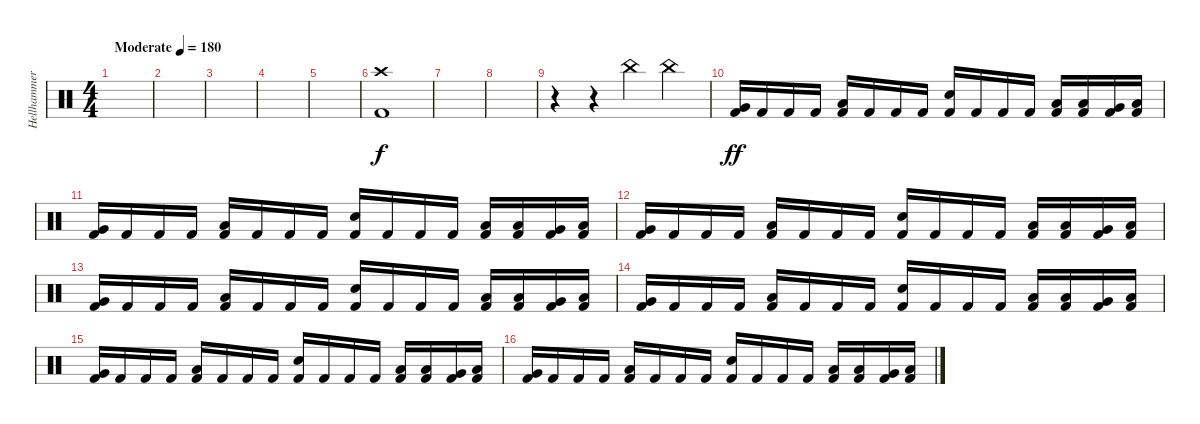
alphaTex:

\track ("Hellhammer" "Hellhammer") {instrument percussion}
\staff {score}
\articulation defaults
\ts (4 4)
\tempo (180 "Moderate")
\clef neutral
\ks c
|
|
|
|
|
("Crash high (hit)" "Kick (hit) 2").1 |
|
|
r.4 r.4 "China (hit)".4{dy f} "China (hit)".4 |
("Very Low Tom (hit)" "Kick (hit) 2").16{dy ff} "Kick (hit) 2".16 "Kick (hit) 2".16 "Kick (hit) 2".16 ("Low Floor Tom (hit)" "Kick (hit) 2").16 "Kick (hit) 2".16 "Kick (hit) 2".16 "Kick (hit) 2".16 ("Electric Snare (hit)" "Kick (hit) 2").16 "Kick (hit) 2".16 "Kick (hit) 2".16 "Kick (hit) 2".16 ("Low Floor Tom (hit)" "Kick (hit) 2").16 ("Low Floor Tom (hit)" "Kick (hit) 2").16 ("Very Low Tom (hit)" "Kick (hit) 2").16 ("Low Tom (hit)" "Kick (hit) 2").16 |
("Very Low Tom (hit)" "Kick (hit) 2").16 "Kick (hit) 2".16 "Kick (hit) 2".16 "Kick (hit) 2".16 ("Low Floor Tom (hit)" "Kick (hit) 2").16 "Kick (hit) 2".16 "Kick (hit) 2".16 "Kick (hit) 2".16 ("Electric Snare (hit)" "Kick (hit) 2").16 "Kick (hit) 2".16 "Kick (hit) 2".16 "Kick (hit) 2".16 ("Low Floor Tom (hit)" "Kick (hit) 2").16 ("Low Floor Tom (hit)" "Kick (hit) 2").16 ("Very Low Tom (hit)" "Kick (hit) 2").16 ("Low Tom (hit)" "Kick (hit) 2").16 |
("Very Low Tom (hit)" "Kick (hit) 2").16 "Kick (hit) 2".16 "Kick (hit) 2".16 "Kick (hit) 2".16 ("Low Floor Tom (hit)" "Kick (hit) 2").16 "Kick (hit) 2".16 "Kick (hit) 2".16 "Kick (hit) 2".16 ("Electric Snare (hit)" "Kick (hit) 2").16 "Kick (hit) 2".16 "Kick (hit) 2".16 "Kick (hit) 2".16 ("Low Floor Tom (hit)" "Kick (hit) 2").16 ("Low Floor Tom (hit)" "Kick (hit) 2").16 ("Very Low Tom (hit)" "Kick (hit) 2").16 ("Low Tom (hit)" "Kick (hit) 2").16 |
("Very Low Tom (hit)" "Kick (hit) 2").16 "Kick (hit) 2".16 "Kick (hit) 2".16 "Kick (hit) 2".16 ("Low Floor Tom (hit)" "Kick (hit) 2").16 "Kick (hit) 2".16 "Kick (hit) 2".16 "Kick (hit) 2".16 ("Electric Snare (hit)" "Kick (hit) 2").16 "Kick (hit) 2".16 "Kick (hit) 2".16 "Kick (hit) 2".16 ("Low Floor Tom (hit)" "Kick (hit) 2").16 ("Low Floor Tom (hit)" "Kick (hit) 2").16 ("Very Low Tom (hit)" "Kick (hit) 2").16 ("Low Tom (hit)" "Kick (hit) 2").16 |
("Very Low Tom (hit)" "Kick (hit) 2").16 "Kick (hit) 2".16 "Kick (hit) 2".16 "Kick (hit) 2".16 ("Low Floor Tom (hit)" "Kick (hit) 2").16 "Kick (hit) 2".16 "Kick (hit) 2".16 "Kick (hit) 2".16 ("Electric Snare (hit)" "Kick (hit) 2").16 "Kick (hit) 2".16 "Kick (hit) 2".16 "Kick (hit) 2".16 ("Low Floor Tom (hit)" "Kick (hit) 2").16 ("Low Floor Tom (hit)" "Kick (hit) 2").16 ("Very Low Tom (hit)" "Kick (hit) 2").16 ("Low Tom (hit)" "Kick (hit) 2").16 |
("Very Low Tom (hit)" "Kick (hit) 2").16 "Kick (hit) 2".16 "Kick (hit) 2".16 "Kick (hit) 2".16 ("Low Floor Tom (hit)" "Kick (hit) 2").16 "Kick (hit) 2".16 "Kick (hit) 2".16 "Kick (hit) 2".16 ("Electric Snare (hit)" "Kick (hit) 2").16 "Kick (hit) 2".16 "Kick (hit) 2".16 "Kick (hit) 2".16 ("Low Floor Tom (hit)" "Kick (hit) 2").16 ("Low Floor Tom (hit)" "Kick (hit) 2").16 ("Very Low Tom (hit)" "Kick (hit) 2").16 ("Low Tom (hit)" "Kick (hit) 2").16 |
("Very Low Tom (hit)" "Kick (hit) 2").16 "Kick (hit) 2".16 "Kick (hit) 2".16 "Kick (hit) 2".16 ("Low Floor Tom (hit)" "Kick (hit) 2").16 "Kick (hit) 2".16 "Kick (hit) 2".16 "Kick (hit) 2".16 ("Electric Snare (hit)" "Kick (hit) 2").16 "Kick (hit) 2".16 "Kick (hit) 2".16 "Kick (hit) 2".16 ("Low Floor Tom (hit)" "Kick (hit) 2").16 ("Low Floor Tom (hit)" "Kick (hit) 2").16 ("Very Low Tom (hit)" "Kick (hit) 2").16 ("Low Tom (hit)" "Kick (hit) 2").16
